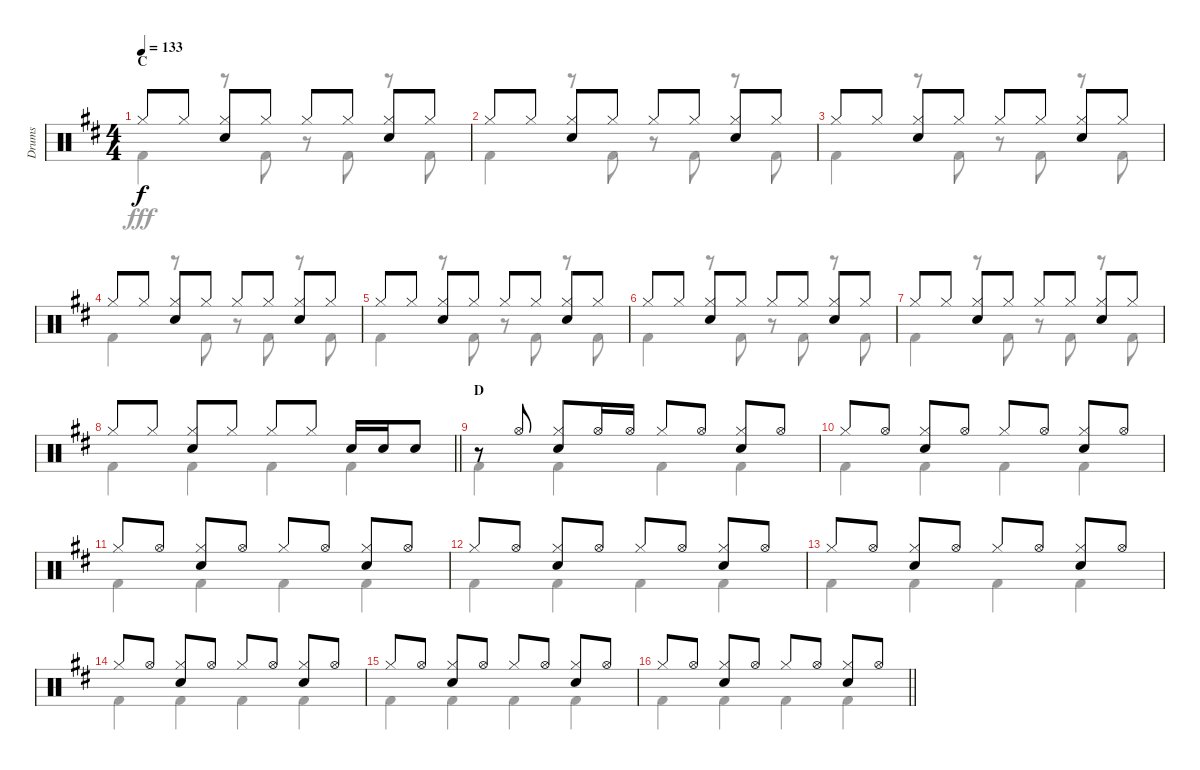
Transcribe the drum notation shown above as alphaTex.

\track ("Drums" "Drums") {instrument percussion}
\staff {score}
\articulation defaults
\voice
\ts (4 4)
\section ("" "C")
\tempo 133
\clef neutral
\ks d "Hi-Hat (closed)".8{dy f} "Hi-Hat (closed)".8
("Hi-Hat (closed)" "Snare (hit) 2").8 "Hi-Hat (closed)".8 "Hi-Hat (closed)".8 "Hi-Hat (closed)".8 ("Hi-Hat (closed)" "Snare (hit) 2").8 "Hi-Hat (closed)".8 |
"Hi-Hat (closed)".8 "Hi-Hat (closed)".8 ("Hi-Hat (closed)" "Snare (hit) 2").8 "Hi-Hat (closed)".8 "Hi-Hat (closed)".8 "Hi-Hat (closed)".8 ("Hi-Hat (closed)" "Snare (hit) 2").8 "Hi-Hat (closed)".8 |
"Hi-Hat (closed)".8 "Hi-Hat (closed)".8 ("Hi-Hat (closed)" "Snare (hit) 2").8 "Hi-Hat (closed)".8 "Hi-Hat (closed)".8 "Hi-Hat (closed)".8 ("Hi-Hat (closed)" "Snare (hit) 2").8 "Hi-Hat (closed)".8 |
"Hi-Hat (closed)".8 "Hi-Hat (closed)".8 ("Hi-Hat (closed)" "Snare (hit) 2").8 "Hi-Hat (closed)".8 "Hi-Hat (closed)".8 "Hi-Hat (closed)".8 ("Hi-Hat (closed)" "Snare (hit) 2").8 "Hi-Hat (closed)".8 |
"Hi-Hat (closed)".8 "Hi-Hat (closed)".8 ("Hi-Hat (closed)" "Snare (hit) 2").8 "Hi-Hat (closed)".8 "Hi-Hat (closed)".8 "Hi-Hat (closed)".8 ("Hi-Hat (closed)" "Snare (hit) 2").8 "Hi-Hat (closed)".8 |
"Hi-Hat (closed)".8 "Hi-Hat (closed)".8 ("Hi-Hat (closed)" "Snare (hit) 2").8 "Hi-Hat (closed)".8 "Hi-Hat (closed)".8 "Hi-Hat (closed)".8 ("Hi-Hat (closed)" "Snare (hit) 2").8 "Hi-Hat (closed)".8 |
"Hi-Hat (closed)".8 "Hi-Hat (closed)".8 ("Hi-Hat (closed)" "Snare (hit) 2").8 "Hi-Hat (closed)".8 "Hi-Hat (closed)".8 "Hi-Hat (closed)".8 ("Hi-Hat (closed)" "Snare (hit) 2").8 "Hi-Hat (closed)".8 |
\barLineRight lightlight "Hi-Hat (closed)".8 "Hi-Hat (closed)".8
("Hi-Hat (closed)" "Snare (hit) 2").8 "Hi-Hat (closed)".8 "Hi-Hat (closed)".8 "Hi-Hat (closed)".8 "Snare (hit) 2".16 "Snare (hit) 2".16 "Snare (hit) 2".8 |
\section ("" "D")
r.8 "Hi-Hat (open)".8 ("Hi-Hat (closed)" "Snare (hit) 2").8 "Hi-Hat (open)".16 "Hi-Hat (open)".16 "Hi-Hat (closed)".8 "Hi-Hat (open)".8 ("Hi-Hat (closed)" "Snare (hit) 2").8 "Hi-Hat (open)".8 |
"Hi-Hat (closed)".8 "Hi-Hat (open)".8 ("Hi-Hat (closed)" "Snare (hit) 2").8 "Hi-Hat (open)".8 "Hi-Hat (closed)".8 "Hi-Hat (open)".8 ("Hi-Hat (closed)" "Snare (hit) 2").8 "Hi-Hat (open)".8 |
"Hi-Hat (closed)".8 "Hi-Hat (open)".8 ("Hi-Hat (closed)" "Snare (hit) 2").8 "Hi-Hat (open)".8 "Hi-Hat (closed)".8 "Hi-Hat (open)".8 ("Hi-Hat (closed)" "Snare (hit) 2").8 "Hi-Hat (open)".8 |
"Hi-Hat (closed)".8 "Hi-Hat (open)".8 ("Hi-Hat (closed)" "Snare (hit) 2").8 "Hi-Hat (open)".8 "Hi-Hat (closed)".8 "Hi-Hat (open)".8 ("Hi-Hat (closed)" "Snare (hit) 2").8 "Hi-Hat (open)".8 |
"Hi-Hat (closed)".8 "Hi-Hat (open)".8 ("Hi-Hat (closed)" "Snare (hit) 2").8 "Hi-Hat (open)".8 "Hi-Hat (closed)".8 "Hi-Hat (open)".8 ("Hi-Hat (closed)" "Snare (hit) 2").8 "Hi-Hat (open)".8 |
"Hi-Hat (closed)".8 "Hi-Hat (open)".8 ("Hi-Hat (closed)" "Snare (hit) 2").8 "Hi-Hat (open)".8 "Hi-Hat (closed)".8 "Hi-Hat (open)".8 ("Hi-Hat (closed)" "Snare (hit) 2").8 "Hi-Hat (open)".8 |
"Hi-Hat (closed)".8 "Hi-Hat (open)".8 ("Hi-Hat (closed)" "Snare (hit) 2").8 "Hi-Hat (open)".8 "Hi-Hat (closed)".8 "Hi-Hat (open)".8 ("Hi-Hat (closed)" "Snare (hit) 2").8 "Hi-Hat (open)".8 |
\barLineRight lightlight "Hi-Hat (closed)".8 "Hi-Hat (open)".8
("Hi-Hat (closed)" "Snare (hit) 2").8 "Hi-Hat (open)".8 "Hi-Hat (closed)".8 "Hi-Hat (open)".8 ("Hi-Hat (closed)" "Snare (hit) 2").8 "Hi-Hat (open)".8
\voice
\clef neutral
\ottava regular
\simile none
\ks d "Kick (hit) 2".4{dy fff}
r.8 "Kick (hit) 2".8 r.8 "Kick (hit) 2".8 r.8 "Kick (hit) 2".8 |
"Kick (hit) 2".4 r.8 "Kick (hit) 2".8 r.8 "Kick (hit) 2".8 r.8 "Kick (hit) 2".8 |
"Kick (hit) 2".4 r.8 "Kick (hit) 2".8 r.8 "Kick (hit) 2".8 r.8 "Kick (hit) 2".8 |
"Kick (hit) 2".4 r.8 "Kick (hit) 2".8 r.8 "Kick (hit) 2".8 r.8 "Kick (hit) 2".8 |
"Kick (hit) 2".4 r.8 "Kick (hit) 2".8 r.8 "Kick (hit) 2".8 r.8 "Kick (hit) 2".8 |
"Kick (hit) 2".4 r.8 "Kick (hit) 2".8 r.8 "Kick (hit) 2".8 r.8 "Kick (hit) 2".8 |
"Kick (hit) 2".4 r.8 "Kick (hit) 2".8 r.8 "Kick (hit) 2".8 r.8 "Kick (hit) 2".8 |
\barLineRight lightlight "Kick (hit) 2".4 "Kick (hit) 2".4 "Kick (hit) 2".4 "Kick (hit) 2".4
|
"Kick (hit) 2".4 "Kick (hit) 2".4 "Kick (hit) 2".4 "Kick (hit) 2".4 |
"Kick (hit) 2".4 "Kick (hit) 2".4 "Kick (hit) 2".4 "Kick (hit) 2".4 |
"Kick (hit) 2".4 "Kick (hit) 2".4 "Kick (hit) 2".4 "Kick (hit) 2".4 |
"Kick (hit) 2".4 "Kick (hit) 2".4 "Kick (hit) 2".4 "Kick (hit) 2".4 |
"Kick (hit) 2".4 "Kick (hit) 2".4 "Kick (hit) 2".4 "Kick (hit) 2".4 |
"Kick (hit) 2".4 "Kick (hit) 2".4 "Kick (hit) 2".4 "Kick (hit) 2".4 |
"Kick (hit) 2".4 "Kick (hit) 2".4 "Kick (hit) 2".4 "Kick (hit) 2".4 |
\barLineRight lightlight "Kick (hit) 2".4 "Kick (hit) 2".4 "Kick (hit) 2".4 "Kick (hit) 2".4
